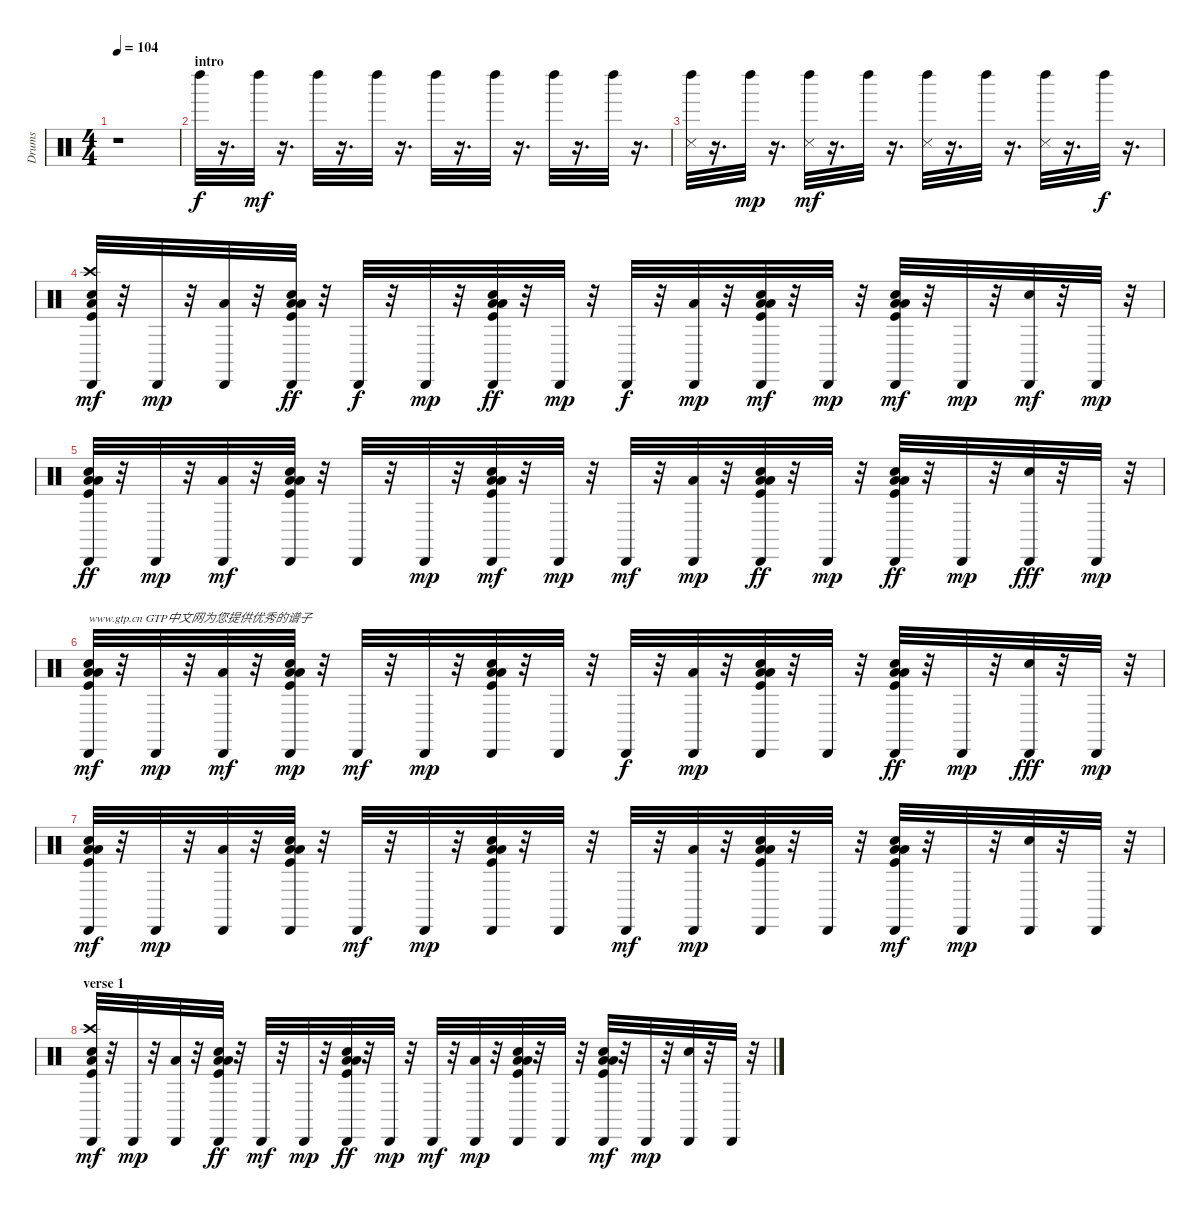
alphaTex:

\track ("Drums" "Drums") {instrument percussion}
\staff {score}
\articulation defaults
\ts (4 4)
\tempo 104
\clef neutral
\ks c
r.1{dy f} |
\section ("" "intro")
"Left Maraca (hit)".32 r.16{d} "Left Maraca (hit)".32{dy mf} r.16{d} "Left Maraca (hit)".32 r.16{d} "Left Maraca (hit)".32 r.16{d} "Left Maraca (hit)".32 r.16{d} "Left Maraca (hit)".32 r.16{d} "Left Maraca (hit)".32 r.16{d} "Left Maraca (hit)".32 r.16{d} |
("Snare (side stick) 3" "Left Maraca (hit)").32 r.16{d} "Left Maraca (hit)".32{dy mp} r.16{d} ("Left Maraca (hit)" "Snare (side stick) 3").32{dy mf} r.16{d} "Left Maraca (hit)".32 r.16{d} ("Snare (side stick) 3" "Left Maraca (hit)").32 r.16{d} "Left Maraca (hit)".32 r.16{d} ("Snare (side stick) 3" "Left Maraca (hit)").32 r.16{d} "Left Maraca (hit)".32{dy f} r.16{d} |
("Crash high (hit)" "Hand Clap (hit)" "Low Floor Tom (hit)" "Kick (hit)" "Cabasa (hit)").32{dy mf} r.32 "Cabasa (hit)".32{dy mp} r.32 ("Low Tom (hit)" "Cabasa (hit)").32 r.32 ("Low Tom (hit)" "Kick (hit)" "Cabasa (hit)" "Low Floor Tom (hit)" "Hand Clap (hit)").32{dy ff} r.32 "Cabasa (hit)".32{dy f} r.32 "Cabasa (hit)".32{dy mp} r.32 ("Low Tom (hit)" "Kick (hit)" "Cabasa (hit)" "Low Floor Tom (hit)" "Hand Clap (hit)").32{dy ff} r.32 "Cabasa (hit)".32{dy mp} r.32 "Cabasa (hit)".32{dy f} r.32 ("Cabasa (hit)" "Low Tom (hit)").32{dy mp} r.32 ("Hand Clap (hit)" "Cabasa (hit)" "Low Tom (hit)" "Low Floor Tom (hit)" "Kick (hit)").32{dy mf} r.32 "Cabasa (hit)".32{dy mp} r.32 ("Hand Clap (hit)" "Cabasa (hit)" "Low Floor Tom (hit)" "Low Tom (hit)" "Kick (hit)").32{dy mf} r.32 "Cabasa (hit)".32{dy mp} r.32 ("Snare (hit) 2" "Cabasa (hit)").32{dy mf} r.32 "Cabasa (hit)".32{dy mp} r.32 |
("Low Floor Tom (hit)" "Kick (hit)" "Hand Clap (hit)" "Cabasa (hit)" "Low Tom (hit)").32{dy ff} r.32 "Cabasa (hit)".32{dy mp} r.32 ("Cabasa (hit)" "Low Tom (hit)").32{dy mf} r.32 ("Cabasa (hit)" "Low Tom (hit)" "Kick (hit)" "Hand Clap (hit)" "Low Floor Tom (hit)").32 r.32 "Cabasa (hit)".32 r.32 "Cabasa (hit)".32{dy mp} r.32 ("Cabasa (hit)" "Low Tom (hit)" "Low Floor Tom (hit)" "Kick (hit)" "Hand Clap (hit)").32{dy mf} r.32 "Cabasa (hit)".32{dy mp} r.32 "Cabasa (hit)".32{dy mf} r.32 ("Low Tom (hit)" "Cabasa (hit)").32{dy mp} r.32 ("Low Tom (hit)" "Cabasa (hit)" "Low Floor Tom (hit)" "Kick (hit)" "Hand Clap (hit)").32{dy ff} r.32 "Cabasa (hit)".32{dy mp} r.32 ("Low Tom (hit)" "Kick (hit)" "Cabasa (hit)" "Low Floor Tom (hit)" "Hand Clap (hit)").32{dy ff} r.32 "Cabasa (hit)".32{dy mp} r.32 ("Cabasa (hit)" "Snare (hit) 2").32{dy fff} r.32 "Cabasa (hit)".32{dy mp} r.32 |
("Low Floor Tom (hit)" "Cabasa (hit)" "Low Tom (hit)" "Kick (hit)" "Hand Clap (hit)").32{txt "www.gtp.cn GTP中文网为您提供优秀的谱子" dy mf} r.32 "Cabasa (hit)".32{dy mp} r.32 ("Cabasa (hit)" "Low Tom (hit)").32{dy mf} r.32 ("Low Tom (hit)" "Low Floor Tom (hit)" "Kick (hit)" "Cabasa (hit)" "Hand Clap (hit)").32{dy mp} r.32 "Cabasa (hit)".32{dy mf} r.32 "Cabasa (hit)".32{dy mp} r.32 ("Low Tom (hit)" "Low Floor Tom (hit)" "Kick (hit)" "Cabasa (hit)" "Hand Clap (hit)").32 r.32 "Cabasa (hit)".32 r.32 "Cabasa (hit)".32{dy f} r.32 ("Cabasa (hit)" "Low Tom (hit)").32{dy mp} r.32 ("Hand Clap (hit)" "Low Tom (hit)" "Low Floor Tom (hit)" "Kick (hit)" "Cabasa (hit)").32 r.32 "Cabasa (hit)".32 r.32 ("Kick (hit)" "Hand Clap (hit)" "Cabasa (hit)" "Low Tom (hit)" "Low Floor Tom (hit)").32{dy ff} r.32 "Cabasa (hit)".32{dy mp} r.32 ("Cabasa (hit)" "Snare (hit) 2").32{dy fff} r.32 "Cabasa (hit)".32{dy mp} r.32 |
("Low Floor Tom (hit)" "Hand Clap (hit)" "Kick (hit)" "Cabasa (hit)" "Low Tom (hit)").32{dy mf} r.32 "Cabasa (hit)".32{dy mp} r.32 ("Cabasa (hit)" "Low Tom (hit)").32 r.32 ("Kick (hit)" "Cabasa (hit)" "Low Floor Tom (hit)" "Low Tom (hit)" "Hand Clap (hit)").32 r.32 "Cabasa (hit)".32{dy mf} r.32 "Cabasa (hit)".32{dy mp} r.32 ("Hand Clap (hit)" "Low Floor Tom (hit)" "Low Tom (hit)" "Kick (hit)" "Cabasa (hit)").32 r.32 "Cabasa (hit)".32 r.32 "Cabasa (hit)".32{dy mf} r.32 ("Low Tom (hit)" "Cabasa (hit)").32{dy mp} r.32 ("Low Floor Tom (hit)" "Low Tom (hit)" "Kick (hit)" "Hand Clap (hit)" "Cabasa (hit)").32 r.32 "Cabasa (hit)".32 r.32 ("Low Floor Tom (hit)" "Low Tom (hit)" "Kick (hit)" "Hand Clap (hit)" "Cabasa (hit)").32{dy mf} r.32 "Cabasa (hit)".32{dy mp} r.32 ("Snare (hit) 2" "Cabasa (hit)").32 r.32 "Cabasa (hit)".32 r.32 |
\section ("" "verse 1")
("Crash high (hit)" "Cabasa (hit)" "Low Floor Tom (hit)" "Kick (hit)" "Hand Clap (hit)").32{dy mf} r.32 "Cabasa (hit)".32{dy mp} r.32 ("Low Tom (hit)" "Cabasa (hit)").32 r.32 ("Low Tom (hit)" "Kick (hit)" "Cabasa (hit)" "Low Floor Tom (hit)" "Hand Clap (hit)").32{dy ff} r.32 "Cabasa (hit)".32{dy mf} r.32 "Cabasa (hit)".32{dy mp} r.32 ("Cabasa (hit)" "Low Tom (hit)" "Kick (hit)" "Low Floor Tom (hit)" "Hand Clap (hit)").32{dy ff} r.32 "Cabasa (hit)".32{dy mp} r.32 "Cabasa (hit)".32{dy mf} r.32 ("Low Tom (hit)" "Cabasa (hit)").32{dy mp} r.32 ("Hand Clap (hit)" "Low Tom (hit)" "Low Floor Tom (hit)" "Kick (hit)" "Cabasa (hit)").32 r.32 "Cabasa (hit)".32 r.32 ("Hand Clap (hit)" "Low Floor Tom (hit)" "Low Tom (hit)" "Kick (hit)" "Cabasa (hit)").32{dy mf} r.32 "Cabasa (hit)".32{dy mp} r.32 ("Snare (hit) 2" "Cabasa (hit)").32 r.32 "Cabasa (hit)".32 r.32
